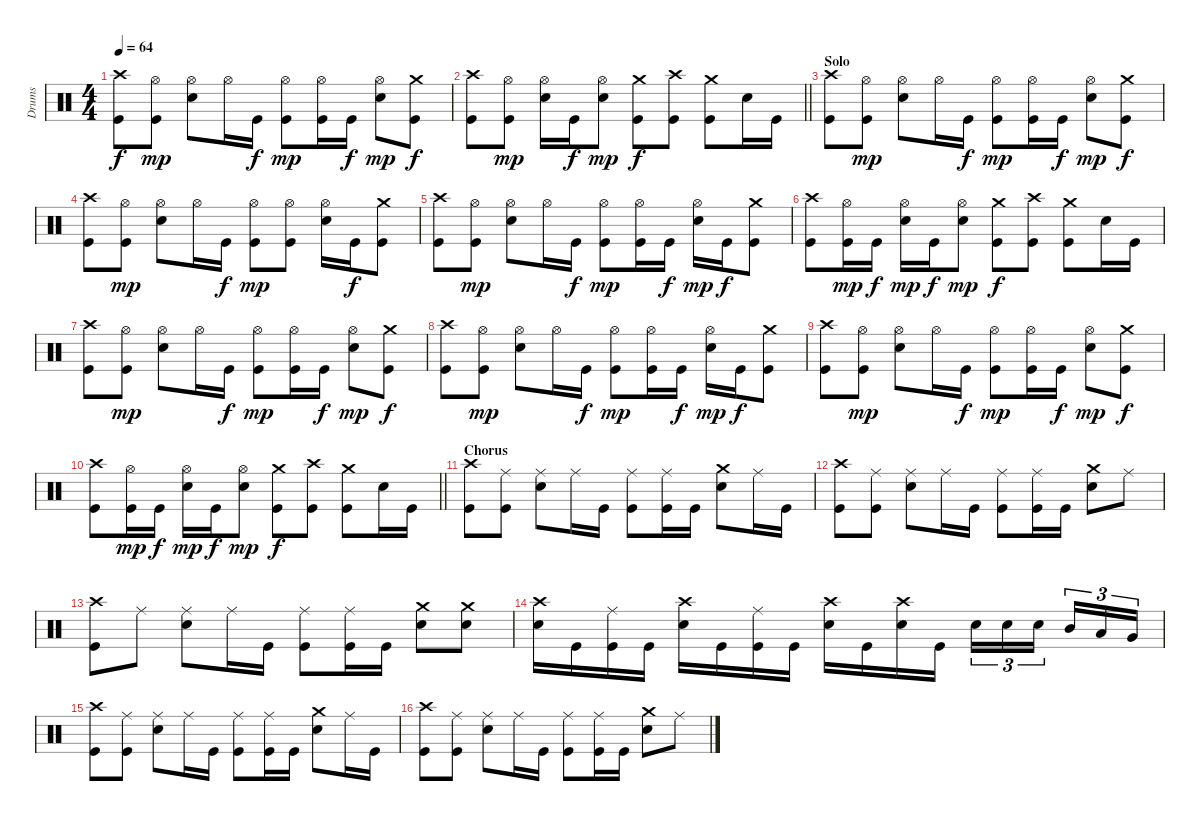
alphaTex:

\track ("Drums" "Drums") {instrument percussion}
\staff {score}
\articulation defaults
\ts (4 4)
\tempo 64
\clef neutral
\ks c
("Crash high (hit)" "Kick (hit)").8{dy f} ("Hi-Hat (open)" "Kick (hit)").8{dy mp} ("Hi-Hat (open)" "Snare (hit) 2").8 "Hi-Hat (open)".16 "Kick (hit)".16{dy f} ("Hi-Hat (open)" "Kick (hit)").8{dy mp} ("Hi-Hat (open)" "Kick (hit)").16 "Kick (hit)".16{dy f} ("Hi-Hat (open)" "Snare (hit) 2").8{dy mp} ("Crash medium (hit)" "Kick (hit)").8{dy f} |
\barLineRight lightlight
("Crash high (hit)" "Kick (hit)").8 ("Hi-Hat (open)" "Kick (hit)").8{dy mp} ("Hi-Hat (open)" "Snare (hit) 2").16 "Kick (hit)".16{dy f} ("Hi-Hat (open)" "Snare (hit) 2").8{dy mp} ("Crash medium (hit)" "Kick (hit)").8{dy f} ("Crash high (hit)" "Kick (hit)").8 ("Crash medium (hit)" "Kick (hit)").8 "Snare (hit) 2".16 "Kick (hit)".16 |
\section ("" "Solo")
("Crash high (hit)" "Kick (hit)").8 ("Hi-Hat (open)" "Kick (hit)").8{dy mp} ("Hi-Hat (open)" "Snare (hit) 2").8 "Hi-Hat (open)".16 "Kick (hit)".16{dy f} ("Hi-Hat (open)" "Kick (hit)").8{dy mp} ("Hi-Hat (open)" "Kick (hit)").16 "Kick (hit)".16{dy f} ("Hi-Hat (open)" "Snare (hit) 2").8{dy mp} ("Crash medium (hit)" "Kick (hit)").8{dy f} |
("Crash high (hit)" "Kick (hit)").8 ("Hi-Hat (open)" "Kick (hit)").8{dy mp} ("Hi-Hat (open)" "Snare (hit) 2").8 "Hi-Hat (open)".16 "Kick (hit)".16{dy f} ("Hi-Hat (open)" "Kick (hit)").8{dy mp} ("Hi-Hat (open)" "Kick (hit)").8 ("Hi-Hat (open)" "Snare (hit) 2").16 "Kick (hit)".16{dy f} ("Crash medium (hit)" "Kick (hit)").8 |
("Crash high (hit)" "Kick (hit)").8 ("Hi-Hat (open)" "Kick (hit)").8{dy mp} ("Hi-Hat (open)" "Snare (hit) 2").8 "Hi-Hat (open)".16 "Kick (hit)".16{dy f} ("Hi-Hat (open)" "Kick (hit)").8{dy mp} ("Hi-Hat (open)" "Kick (hit)").16 "Kick (hit)".16{dy f} ("Hi-Hat (open)" "Snare (hit) 2").16{dy mp} "Kick (hit)".16{dy f} ("Crash medium (hit)" "Kick (hit)").8 |
("Crash high (hit)" "Kick (hit)").8 ("Hi-Hat (open)" "Kick (hit)").16{dy mp} "Kick (hit)".16{dy f} ("Hi-Hat (open)" "Snare (hit) 2").16{dy mp} "Kick (hit)".16{dy f} ("Hi-Hat (open)" "Snare (hit) 2").8{dy mp} ("Crash medium (hit)" "Kick (hit)").8{dy f} ("Crash high (hit)" "Kick (hit)").8 ("Crash medium (hit)" "Kick (hit)").8 "Snare (hit) 2".16 "Kick (hit)".16 |
("Crash high (hit)" "Kick (hit)").8 ("Hi-Hat (open)" "Kick (hit)").8{dy mp} ("Hi-Hat (open)" "Snare (hit) 2").8 "Hi-Hat (open)".16 "Kick (hit)".16{dy f} ("Hi-Hat (open)" "Kick (hit)").8{dy mp} ("Hi-Hat (open)" "Kick (hit)").16 "Kick (hit)".16{dy f} ("Hi-Hat (open)" "Snare (hit) 2").8{dy mp} ("Crash medium (hit)" "Kick (hit)").8{dy f} |
("Crash high (hit)" "Kick (hit)").8 ("Hi-Hat (open)" "Kick (hit)").8{dy mp} ("Hi-Hat (open)" "Snare (hit) 2").8 "Hi-Hat (open)".16 "Kick (hit)".16{dy f} ("Hi-Hat (open)" "Kick (hit)").8{dy mp} ("Hi-Hat (open)" "Kick (hit)").16 "Kick (hit)".16{dy f} ("Hi-Hat (open)" "Snare (hit) 2").16{dy mp} "Kick (hit)".16{dy f} ("Crash medium (hit)" "Kick (hit)").8 |
("Crash high (hit)" "Kick (hit)").8 ("Hi-Hat (open)" "Kick (hit)").8{dy mp} ("Hi-Hat (open)" "Snare (hit) 2").8 "Hi-Hat (open)".16 "Kick (hit)".16{dy f} ("Hi-Hat (open)" "Kick (hit)").8{dy mp} ("Hi-Hat (open)" "Kick (hit)").16 "Kick (hit)".16{dy f} ("Hi-Hat (open)" "Snare (hit) 2").8{dy mp} ("Crash medium (hit)" "Kick (hit)").8{dy f} |
\barLineRight lightlight
("Crash high (hit)" "Kick (hit)").8 ("Hi-Hat (open)" "Kick (hit)").16{dy mp} "Kick (hit)".16{dy f} ("Hi-Hat (open)" "Snare (hit) 2").16{dy mp} "Kick (hit)".16{dy f} ("Hi-Hat (open)" "Snare (hit) 2").8{dy mp} ("Crash medium (hit)" "Kick (hit)").8{dy f} ("Crash high (hit)" "Kick (hit)").8 ("Crash medium (hit)" "Kick (hit)").8 "Snare (hit) 2".16 "Kick (hit)".16 |
\section ("" "Chorus")
("Crash high (hit)" "Kick (hit)").8 ("Ride (middle)" "Kick (hit)").8 ("Ride (middle)" "Snare (hit) 2").8 "Ride (middle)".16 "Kick (hit)".16 ("Ride (middle)" "Kick (hit)").8 ("Ride (middle)" "Kick (hit)").16 "Kick (hit)".16 ("Crash medium (hit)" "Snare (hit) 2").8 "Ride (middle)".16 "Kick (hit)".16 |
("Crash high (hit)" "Kick (hit)").8 ("Ride (middle)" "Kick (hit)").8 ("Ride (middle)" "Snare (hit) 2").8 "Ride (middle)".16 "Kick (hit)".16 ("Ride (middle)" "Kick (hit)").8 ("Ride (middle)" "Kick (hit)").16 "Kick (hit)".16 ("Crash medium (hit)" "Snare (hit) 2").8 "Ride (middle)".8 |
("Crash high (hit)" "Kick (hit)").8 "Ride (middle)".8 ("Ride (middle)" "Snare (hit) 2").8 "Ride (middle)".16 "Kick (hit)".16 ("Ride (middle)" "Kick (hit)").8 ("Ride (middle)" "Kick (hit)").16 "Kick (hit)".16 ("Crash medium (hit)" "Snare (hit) 2").8 ("Crash medium (hit)" "Snare (hit) 2").8 |
("Crash high (hit)" "Snare (hit) 2").16 "Kick (hit)".16 ("Ride (middle)" "Kick (hit)").16 "Kick (hit)".16 ("Crash high (hit)" "Snare (hit) 2").16 "Kick (hit)".16 ("Ride (middle)" "Kick (hit)").16 "Kick (hit)".16 ("Crash high (hit)" "Snare (hit) 2").16 "Kick (hit)".16 ("Crash high (hit)" "Snare (hit) 2").16 "Kick (hit)".16 "Snare (hit) 2".16{tu (3 2)} "Snare (hit) 2".16{tu (3 2)} "Snare (hit) 2".16{tu (3 2)} "Mid Tom (hit)".16{tu (3 2)} "Low Tom (hit)".16{tu (3 2)} "Very Low Tom (hit)".16{tu (3 2)} |
("Crash high (hit)" "Kick (hit)").8 ("Ride (middle)" "Kick (hit)").8 ("Ride (middle)" "Snare (hit) 2").8 "Ride (middle)".16 "Kick (hit)".16 ("Ride (middle)" "Kick (hit)").8 ("Ride (middle)" "Kick (hit)").16 "Kick (hit)".16 ("Crash medium (hit)" "Snare (hit) 2").8 "Ride (middle)".16 "Kick (hit)".16 |
("Crash high (hit)" "Kick (hit)").8 ("Ride (middle)" "Kick (hit)").8 ("Ride (middle)" "Snare (hit) 2").8 "Ride (middle)".16 "Kick (hit)".16 ("Ride (middle)" "Kick (hit)").8 ("Ride (middle)" "Kick (hit)").16 "Kick (hit)".16 ("Crash medium (hit)" "Snare (hit) 2").8 "Ride (middle)".8
